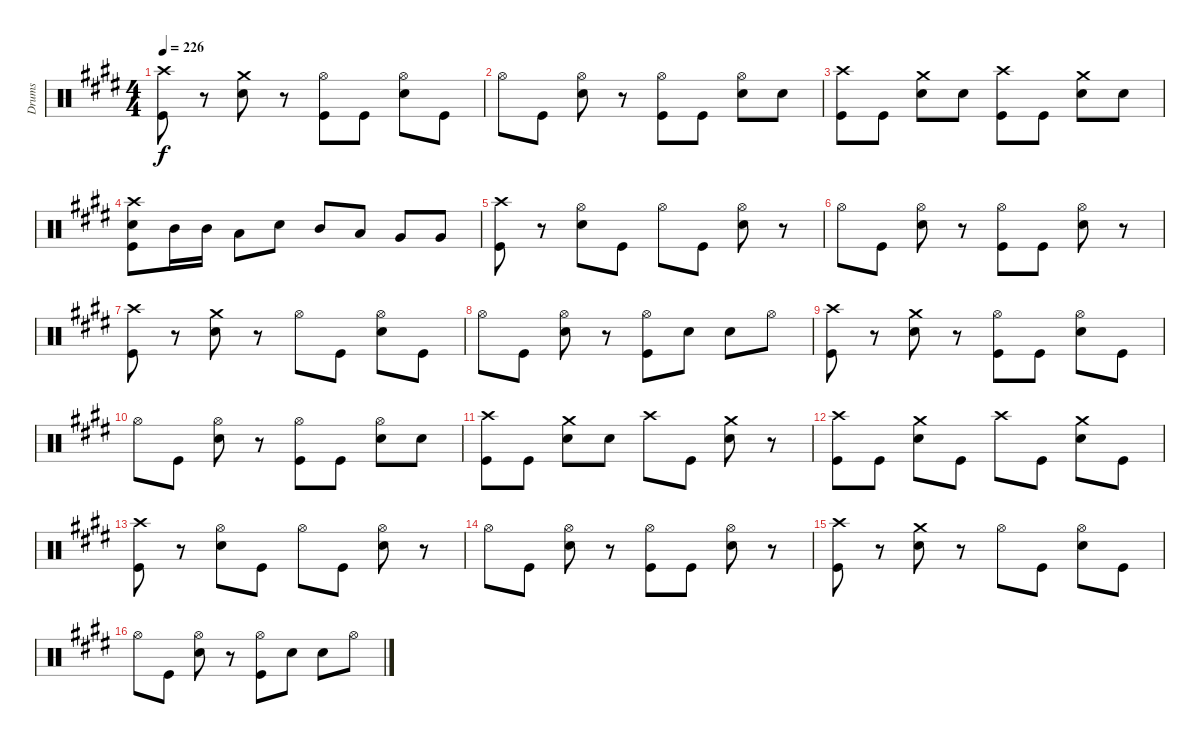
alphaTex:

\track ("Drums" "Drums") {instrument percussion}
\staff {score}
\articulation defaults
\ts (4 4)
\tempo 226
\clef neutral
\ks e
("Crash high (hit)" "Kick (hit)").8{dy f} r.8 ("Crash medium (hit)" "Snare (hit) 2").8 r.8 ("Hi-Hat (open)" "Kick (hit)").8 "Kick (hit)".8 ("Hi-Hat (open)" "Snare (hit) 2").8 "Kick (hit)".8 |
"Hi-Hat (open)".8 "Kick (hit)".8 ("Hi-Hat (open)" "Snare (hit) 2").8 r.8 ("Hi-Hat (open)" "Kick (hit)").8 "Kick (hit)".8 ("Hi-Hat (open)" "Snare (hit) 2").8 "Snare (hit) 2".8 |
("Crash high (hit)" "Kick (hit)").8 "Kick (hit)".8 ("Crash medium (hit)" "Snare (hit) 2").8 "Snare (hit) 2".8 ("Crash high (hit)" "Kick (hit)").8 "Kick (hit)".8 ("Crash medium (hit)" "Snare (hit) 2").8 "Snare (hit) 2".8 |
("Crash high (hit)" "Snare (hit) 2" "Kick (hit)").8 "Mid Tom (hit)".16 "Mid Tom (hit)".16 "Low Tom (hit)".8 "Snare (hit) 2".8 "Mid Tom (hit)".8 "Low Tom (hit)".8 "Very Low Tom (hit)".8 "Very Low Tom (hit)".8 |
("Crash high (hit)" "Kick (hit)").8 r.8 ("Hi-Hat (open)" "Snare (hit) 2").8 "Kick (hit)".8 "Hi-Hat (open)".8 "Kick (hit)".8 ("Hi-Hat (open)" "Snare (hit) 2").8 r.8 |
"Hi-Hat (open)".8 "Kick (hit)".8 ("Hi-Hat (open)" "Snare (hit) 2").8 r.8 ("Hi-Hat (open)" "Kick (hit)").8 "Kick (hit)".8 ("Hi-Hat (open)" "Snare (hit) 2").8 r.8 |
("Crash high (hit)" "Kick (hit)").8 r.8 ("Crash medium (hit)" "Snare (hit) 2").8 r.8 "Hi-Hat (open)".8 "Kick (hit)".8 ("Hi-Hat (open)" "Snare (hit) 2").8 "Kick (hit)".8 |
"Hi-Hat (open)".8 "Kick (hit)".8 ("Hi-Hat (open)" "Snare (hit) 2").8 r.8 ("Hi-Hat (open)" "Kick (hit)").8 "Snare (hit) 2".8 "Snare (hit) 2".8 "Hi-Hat (open)".8 |
("Crash high (hit)" "Kick (hit)").8 r.8 ("Crash medium (hit)" "Snare (hit) 2").8 r.8 ("Hi-Hat (open)" "Kick (hit)").8 "Kick (hit)".8 ("Hi-Hat (open)" "Snare (hit) 2").8 "Kick (hit)".8 |
"Hi-Hat (open)".8 "Kick (hit)".8 ("Hi-Hat (open)" "Snare (hit) 2").8 r.8 ("Hi-Hat (open)" "Kick (hit)").8 "Kick (hit)".8 ("Hi-Hat (open)" "Snare (hit) 2").8 "Snare (hit) 2".8 |
("Crash high (hit)" "Kick (hit)").8 "Kick (hit)".8 ("Crash medium (hit)" "Snare (hit) 2").8 "Snare (hit) 2".8 "Crash high (hit)".8 "Kick (hit)".8 ("Crash medium (hit)" "Snare (hit) 2").8 r.8 |
("Crash high (hit)" "Kick (hit)").8 "Kick (hit)".8 ("Crash medium (hit)" "Snare (hit) 2").8 "Kick (hit)".8 "Crash high (hit)".8 "Kick (hit)".8 ("Crash medium (hit)" "Snare (hit) 2").8 "Kick (hit)".8 |
("Crash high (hit)" "Kick (hit)").8 r.8 ("Hi-Hat (open)" "Snare (hit) 2").8 "Kick (hit)".8 "Hi-Hat (open)".8 "Kick (hit)".8 ("Hi-Hat (open)" "Snare (hit) 2").8 r.8 |
"Hi-Hat (open)".8 "Kick (hit)".8 ("Hi-Hat (open)" "Snare (hit) 2").8 r.8 ("Hi-Hat (open)" "Kick (hit)").8 "Kick (hit)".8 ("Hi-Hat (open)" "Snare (hit) 2").8 r.8 |
("Crash high (hit)" "Kick (hit)").8 r.8 ("Crash medium (hit)" "Snare (hit) 2").8 r.8 "Hi-Hat (open)".8 "Kick (hit)".8 ("Hi-Hat (open)" "Snare (hit) 2").8 "Kick (hit)".8 |
"Hi-Hat (open)".8 "Kick (hit)".8 ("Hi-Hat (open)" "Snare (hit) 2").8 r.8 ("Hi-Hat (open)" "Kick (hit)").8 "Snare (hit) 2".8 "Snare (hit) 2".8 "Hi-Hat (open)".8
